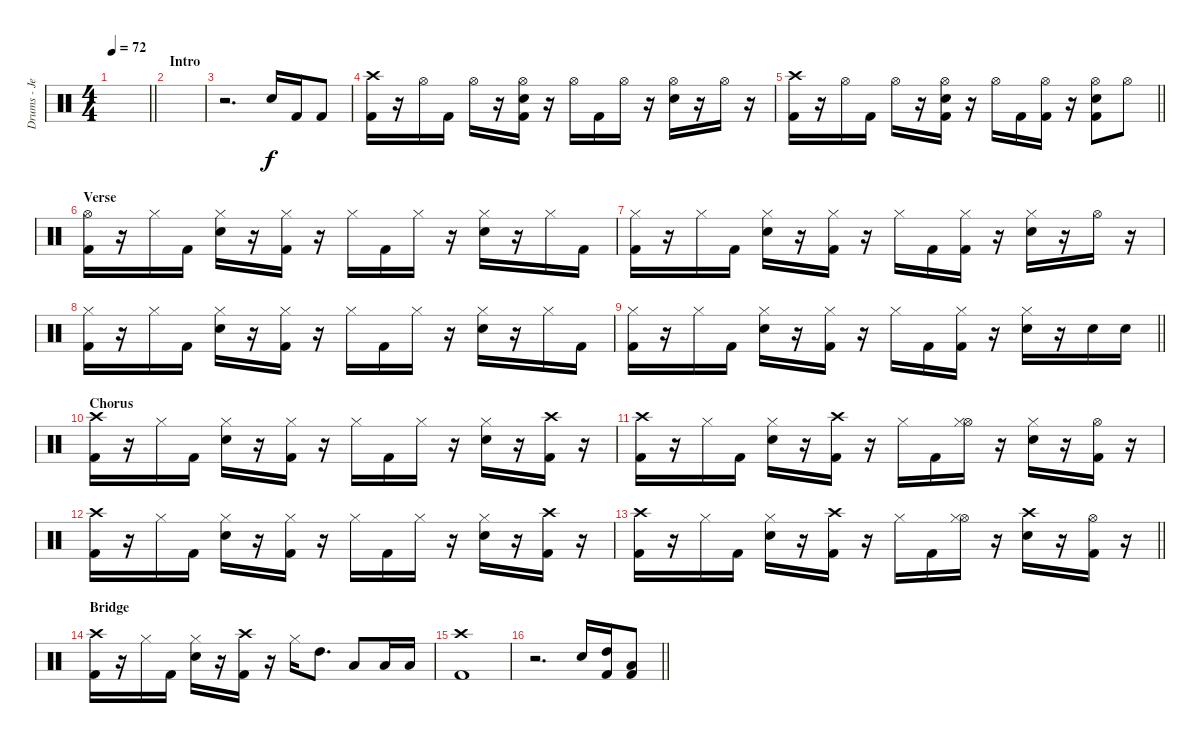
\track ("Drums - Jerry Gaskill" "Drums - Je") {instrument percussion}
\staff {score}
\articulation defaults
\ts (4 4)
\tempo 72
\clef neutral
\barLineRight lightlight
\ks c
|
\section ("" "Intro")
|
r.2{d} "Snare (hit) 2".16 "Kick (hit) 2".16 "Kick (hit) 2".8 |
("Kick (hit) 2" "Crash high (hit)").16 r.16 "Hi-Hat (open)".16 "Kick (hit) 2".16 "Hi-Hat (open)".16 r.16 ("Kick (hit) 2" "Snare (hit) 2" "Hi-Hat (open)").16 r.16 "Hi-Hat (open)".16 "Kick (hit) 2".16 "Hi-Hat (open)".16 r.16 ("Snare (hit) 2" "Hi-Hat (open)").16 r.16 "Hi-Hat (open)".16 r.16 |
\barLineRight lightlight
("Kick (hit) 2" "Crash high (hit)").16 r.16 "Hi-Hat (open)".16 "Kick (hit) 2".16 "Hi-Hat (open)".16 r.16 ("Kick (hit) 2" "Snare (hit) 2" "Hi-Hat (open)").16 r.16 "Hi-Hat (open)".16 "Kick (hit) 2".16 ("Kick (hit) 2" "Hi-Hat (open)").16 r.16 ("Kick (hit) 2" "Snare (hit) 2" "Hi-Hat (open)").8 "Hi-Hat (open)".8 |
\section ("" "Verse")
("Kick (hit) 2" "Hi-Hat (open)").16 r.16 "Hi-Hat (closed)".16 "Kick (hit) 2".16 ("Snare (hit) 2" "Hi-Hat (closed)").16 r.16 ("Kick (hit) 2" "Hi-Hat (closed)").16 r.16 "Hi-Hat (closed)".16 "Kick (hit) 2".16 "Hi-Hat (closed)".16 r.16 ("Snare (hit) 2" "Hi-Hat (closed)").16 r.16 "Hi-Hat (closed)".16 "Kick (hit) 2".16 |
("Kick (hit) 2" "Hi-Hat (closed)").16 r.16 "Hi-Hat (closed)".16 "Kick (hit) 2".16 ("Snare (hit) 2" "Hi-Hat (closed)").16 r.16 ("Kick (hit) 2" "Hi-Hat (closed)").16 r.16 "Hi-Hat (closed)".16 "Kick (hit) 2".16 ("Kick (hit) 2" "Hi-Hat (closed)").16 r.16 ("Snare (hit) 2" "Hi-Hat (closed)").16 r.16 "Hi-Hat (open)".16 r.16 |
("Kick (hit) 2" "Hi-Hat (closed)").16 r.16 "Hi-Hat (closed)".16 "Kick (hit) 2".16 ("Snare (hit) 2" "Hi-Hat (closed)").16 r.16 ("Kick (hit) 2" "Hi-Hat (closed)").16 r.16 "Hi-Hat (closed)".16 "Kick (hit) 2".16 "Hi-Hat (closed)".16 r.16 ("Snare (hit) 2" "Hi-Hat (closed)").16 r.16 "Hi-Hat (closed)".16 "Kick (hit) 2".16 |
\barLineRight lightlight
("Kick (hit) 2" "Hi-Hat (closed)").16 r.16 "Hi-Hat (closed)".16 "Kick (hit) 2".16 ("Snare (hit) 2" "Hi-Hat (closed)").16 r.16 ("Kick (hit) 2" "Hi-Hat (closed)").16 r.16 "Hi-Hat (closed)".16 "Kick (hit) 2".16 ("Kick (hit) 2" "Hi-Hat (closed)").16 r.16 ("Snare (hit) 2" "Hi-Hat (closed)").16 r.16 "Snare (hit) 2".16 "Snare (hit) 2".16 |
\section ("" "Chorus")
("Kick (hit) 2" "Crash high (hit)").16 r.16 "Hi-Hat (closed)".16 "Kick (hit) 2".16 ("Snare (hit) 2" "Hi-Hat (closed)").16 r.16 ("Kick (hit) 2" "Hi-Hat (closed)").16 r.16 "Hi-Hat (closed)".16 "Kick (hit) 2".16 "Hi-Hat (closed)".16 r.16 ("Snare (hit) 2" "Hi-Hat (closed)").16 r.16 ("Kick (hit) 2" "Crash high (hit)").16 r.16 |
("Kick (hit) 2" "Crash high (hit)").16 r.16 "Hi-Hat (closed)".16 "Kick (hit) 2".16 ("Snare (hit) 2" "Hi-Hat (closed)").16 r.16 ("Kick (hit) 2" "Crash high (hit)").16 r.16 "Hi-Hat (closed)".16 "Kick (hit) 2".16 ("Hi-Hat (open)" "Hi-Hat (closed)").16 r.16 ("Snare (hit) 2" "Hi-Hat (closed)").16 r.16 ("Kick (hit) 2" "Hi-Hat (open)").16 r.16 |
("Kick (hit) 2" "Crash high (hit)").16 r.16 "Hi-Hat (closed)".16 "Kick (hit) 2".16 ("Snare (hit) 2" "Hi-Hat (closed)").16 r.16 ("Kick (hit) 2" "Hi-Hat (closed)").16 r.16 "Hi-Hat (closed)".16 "Kick (hit) 2".16 "Hi-Hat (closed)".16 r.16 ("Snare (hit) 2" "Hi-Hat (closed)").16 r.16 ("Kick (hit) 2" "Crash high (hit)").16 r.16 |
\barLineRight lightlight
("Kick (hit) 2" "Crash high (hit)").16 r.16 "Hi-Hat (closed)".16 "Kick (hit) 2".16 ("Snare (hit) 2" "Hi-Hat (closed)").16 r.16 ("Kick (hit) 2" "Crash high (hit)").16 r.16 "Hi-Hat (closed)".16 "Kick (hit) 2".16 ("Hi-Hat (open)" "Hi-Hat (closed)").16 r.16 ("Snare (hit) 2" "Crash high (hit)").16 r.16 ("Kick (hit) 2" "Hi-Hat (open)").16 r.16 |
\section ("" "Bridge")
("Kick (hit) 2" "Crash high (hit)").16 r.16 "Hi-Hat (closed)".16 "Kick (hit) 2".16 ("Snare (hit) 2" "Hi-Hat (closed)").16 r.16 ("Kick (hit) 2" "Crash high (hit)").16 r.16 "Hi-Hat (closed)".16 "High Tom (hit)".8{d} "Low Tom (hit)".8 "Low Tom (hit)".16 "Low Tom (hit)".16 |
("Kick (hit) 2" "Crash high (hit)").1 |
\barLineRight lightlight
r.2{d} "Snare (hit) 2".16 ("Kick (hit) 2" "High Tom (hit)").16 ("Kick (hit) 2" "Low Tom (hit)").8
